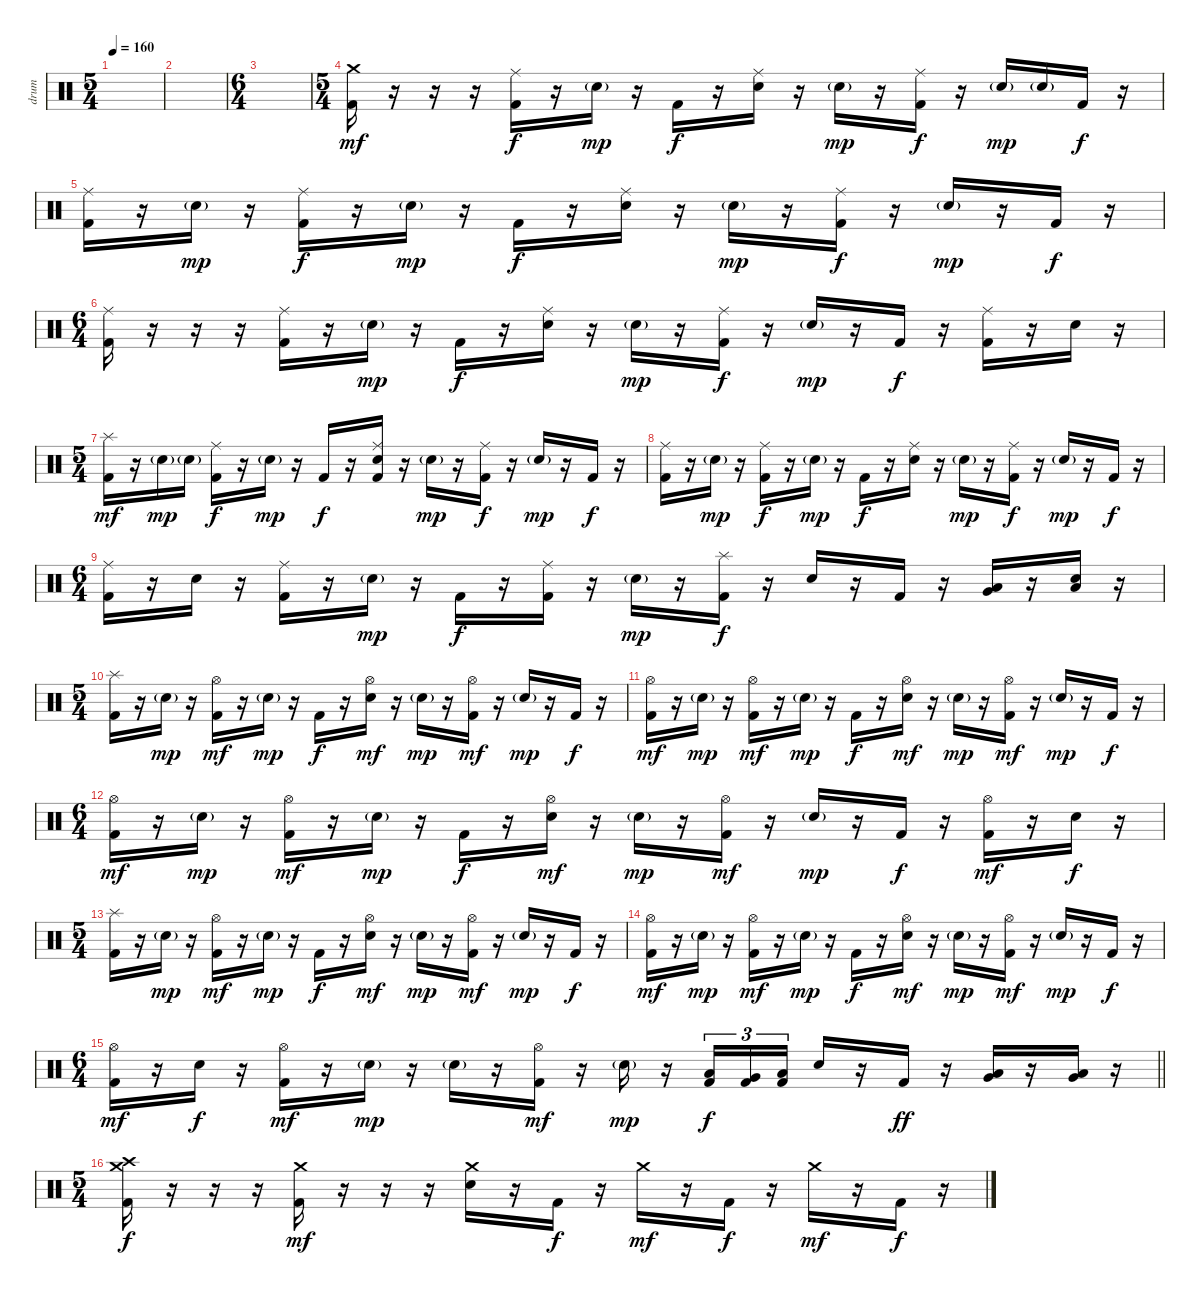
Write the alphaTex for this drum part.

\track ("drum" "drum") {instrument percussion}
\staff {score}
\articulation defaults
\ts (5 4)
\tempo 160
\clef neutral
\ks c
|
|
\ts (6 4)
|
\ts (5 4)
("Crash medium (hit)" "Kick (hit) 2").16{dy mf} r.16 r.16 r.16 ("Ride (middle)" "Kick (hit) 2").16{dy f} r.16 "Electric Snare (hit)"{g}.16{dy mp} r.16 "Kick (hit) 2".16{dy f} r.16 ("Ride (middle)" "Electric Snare (hit)").16 r.16 "Electric Snare (hit)"{g}.16{dy mp} r.16 ("Ride (middle)" "Kick (hit) 2").16{dy f} r.16 "Electric Snare (hit)"{g}.16{dy mp} "Electric Snare (hit)"{g}.16 "Kick (hit) 2".16{dy f} r.16 |
("Ride (middle)" "Kick (hit) 2").16 r.16 "Electric Snare (hit)"{g}.16{dy mp} r.16 ("Ride (middle)" "Kick (hit) 2").16{dy f} r.16 "Electric Snare (hit)"{g}.16{dy mp} r.16 "Kick (hit) 2".16{dy f} r.16 ("Ride (middle)" "Electric Snare (hit)").16 r.16 "Electric Snare (hit)"{g}.16{dy mp} r.16 ("Ride (middle)" "Kick (hit) 2").16{dy f} r.16 "Electric Snare (hit)"{g}.16{dy mp} r.16 "Kick (hit) 2".16{dy f} r.16 |
\ts (6 4)
("Ride (middle)" "Kick (hit) 2").16 r.16 r.16 r.16 ("Ride (middle)" "Kick (hit) 2").16 r.16 "Electric Snare (hit)"{g}.16{dy mp} r.16 "Kick (hit) 2".16{dy f} r.16 ("Ride (middle)" "Electric Snare (hit)").16 r.16 "Electric Snare (hit)"{g}.16{dy mp} r.16 ("Ride (middle)" "Kick (hit) 2").16{dy f} r.16 "Electric Snare (hit)"{g}.16{dy mp} r.16 "Kick (hit) 2".16{dy f} r.16 ("Ride (middle)" "Kick (hit) 2").16 r.16 "Electric Snare (hit)".16 r.16 |
\ts (5 4)
("Splash (hit)" "Kick (hit) 2").16{dy mf} r.16 "Electric Snare (hit)"{g}.16{dy mp} "Electric Snare (hit)"{g}.16 ("Ride (middle)" "Kick (hit) 2").16{dy f} r.16 "Electric Snare (hit)"{g}.16{dy mp} r.16 "Kick (hit) 2".16{dy f} r.16 ("Ride (middle)" "Electric Snare (hit)" "Kick (hit) 2").16 r.16 "Electric Snare (hit)"{g}.16{dy mp} r.16 ("Ride (middle)" "Kick (hit) 2").16{dy f} r.16 "Electric Snare (hit)"{g}.16{dy mp} r.16 "Kick (hit) 2".16{dy f} r.16 |
("Ride (middle)" "Kick (hit) 2").16 r.16 "Electric Snare (hit)"{g}.16{dy mp} r.16 ("Ride (middle)" "Kick (hit) 2").16{dy f} r.16 "Electric Snare (hit)"{g}.16{dy mp} r.16 "Kick (hit) 2".16{dy f} r.16 ("Ride (middle)" "Electric Snare (hit)").16 r.16 "Electric Snare (hit)"{g}.16{dy mp} r.16 ("Ride (middle)" "Kick (hit) 2").16{dy f} r.16 "Electric Snare (hit)"{g}.16{dy mp} r.16 "Kick (hit) 2".16{dy f} r.16 |
\ts (6 4)
("Ride (middle)" "Kick (hit) 2").16 r.16 "Electric Snare (hit)".16 r.16 ("Ride (middle)" "Kick (hit) 2").16 r.16 "Electric Snare (hit)"{g}.16{dy mp} r.16 "Kick (hit) 2".16{dy f} r.16 ("Ride (middle)" "Kick (hit) 2").16 r.16 "Electric Snare (hit)"{g}.16{dy mp} r.16 ("Splash (hit)" "Kick (hit) 2").16{dy f} r.16 "Electric Snare (hit)".16 r.16 "Kick (hit) 2".16 r.16 ("Very Low Tom (hit)" "Low Tom (hit)").16 r.16 ("Low Floor Tom (hit)" "Electric Snare (hit)").16 r.16 |
\ts (5 4)
("Splash (hit)" "Kick (hit) 2").16 r.16 "Electric Snare (hit)"{g}.16{dy mp} r.16 ("Hi-Hat (open)" "Kick (hit) 2").16{dy mf} r.16 "Electric Snare (hit)"{g}.16{dy mp} r.16 "Kick (hit) 2".16{dy f} r.16 ("Hi-Hat (open)" "Electric Snare (hit)").16{dy mf} r.16 "Electric Snare (hit)"{g}.16{dy mp} r.16 ("Hi-Hat (open)" "Kick (hit) 2").16{dy mf} r.16 "Electric Snare (hit)"{g}.16{dy mp} r.16 "Kick (hit) 2".16{dy f} r.16 |
("Hi-Hat (open)" "Kick (hit) 2").16{dy mf} r.16 "Electric Snare (hit)"{g}.16{dy mp} r.16 ("Hi-Hat (open)" "Kick (hit) 2").16{dy mf} r.16 "Electric Snare (hit)"{g}.16{dy mp} r.16 "Kick (hit) 2".16{dy f} r.16 ("Hi-Hat (open)" "Electric Snare (hit)").16{dy mf} r.16 "Electric Snare (hit)"{g}.16{dy mp} r.16 ("Hi-Hat (open)" "Kick (hit) 2").16{dy mf} r.16 "Electric Snare (hit)"{g}.16{dy mp} r.16 "Kick (hit) 2".16{dy f} r.16 |
\ts (6 4)
("Hi-Hat (open)" "Kick (hit) 2").16{dy mf} r.16 "Electric Snare (hit)"{g}.16{dy mp} r.16 ("Hi-Hat (open)" "Kick (hit) 2").16{dy mf} r.16 "Electric Snare (hit)"{g}.16{dy mp} r.16 "Kick (hit) 2".16{dy f} r.16 ("Hi-Hat (open)" "Electric Snare (hit)").16{dy mf} r.16 "Electric Snare (hit)"{g}.16{dy mp} r.16 ("Hi-Hat (open)" "Kick (hit) 2").16{dy mf} r.16 "Electric Snare (hit)"{g}.16{dy mp} r.16 "Kick (hit) 2".16{dy f} r.16 ("Hi-Hat (open)" "Kick (hit) 2").16{dy mf} r.16 "Electric Snare (hit)".16{dy f} r.16 |
\ts (5 4)
("Splash (hit)" "Kick (hit) 2").16 r.16 "Electric Snare (hit)"{g}.16{dy mp} r.16 ("Hi-Hat (open)" "Kick (hit) 2").16{dy mf} r.16 "Electric Snare (hit)"{g}.16{dy mp} r.16 "Kick (hit) 2".16{dy f} r.16 ("Hi-Hat (open)" "Electric Snare (hit)").16{dy mf} r.16 "Electric Snare (hit)"{g}.16{dy mp} r.16 ("Hi-Hat (open)" "Kick (hit) 2").16{dy mf} r.16 "Electric Snare (hit)"{g}.16{dy mp} r.16 "Kick (hit) 2".16{dy f} r.16 |
("Hi-Hat (open)" "Kick (hit) 2").16{dy mf} r.16 "Electric Snare (hit)"{g}.16{dy mp} r.16 ("Hi-Hat (open)" "Kick (hit) 2").16{dy mf} r.16 "Electric Snare (hit)"{g}.16{dy mp} r.16 "Kick (hit) 2".16{dy f} r.16 ("Hi-Hat (open)" "Electric Snare (hit)").16{dy mf} r.16 "Electric Snare (hit)"{g}.16{dy mp} r.16 ("Hi-Hat (open)" "Kick (hit) 2").16{dy mf} r.16 "Electric Snare (hit)"{g}.16{dy mp} r.16 "Kick (hit) 2".16{dy f} r.16 |
\ts (6 4)
\barLineRight lightlight
("Hi-Hat (open)" "Kick (hit) 2").16{dy mf} r.16 "Electric Snare (hit)".16{dy f} r.16 ("Hi-Hat (open)" "Kick (hit) 2").16{dy mf} r.16 "Electric Snare (hit)"{g}.16{dy mp} r.16 "Electric Snare (hit)"{g}.16 r.16 ("Hi-Hat (open)" "Kick (hit) 2").16{dy mf} r.16 "Electric Snare (hit)"{g}.16{dy mp} r.16 ("Low Tom (hit)" "Kick (hit) 2").16{tu (3 2) dy f} ("Very Low Tom (hit)" "Kick (hit) 2").16{tu (3 2)} ("Low Floor Tom (hit)" "Kick (hit) 2").16{tu (3 2) beam splitsecondary} "Electric Snare (hit)".16 r.16 "Kick (hit) 2".16{dy ff} r.16 ("Low Tom (hit)" "Very Low Tom (hit)").16 r.16 ("Low Floor Tom (hit)" "Very Low Tom (hit)").16 r.16 |
\ts (5 4)
\section ("" "")
("Crash medium (hit)" "Crash high (hit)" "Kick (hit) 2").16{dy f} r.16 r.16 r.16 ("Crash medium (hit)" "Kick (hit) 2").16{dy mf} r.16 r.16 r.16 ("Crash medium (hit)" "Electric Snare (hit)").16 r.16 "Kick (hit) 2".16{dy f} r.16 "Crash medium (hit)".16{dy mf} r.16 "Kick (hit) 2".16{dy f} r.16 "Crash medium (hit)".16{dy mf} r.16 "Kick (hit) 2".16{dy f} r.16
